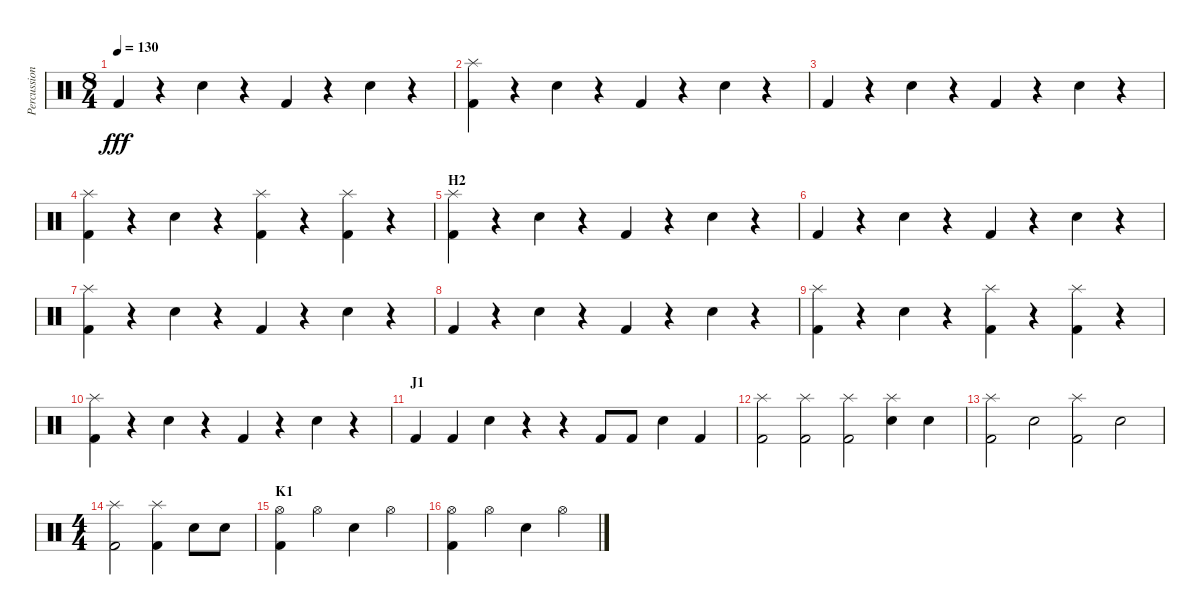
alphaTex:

\track ("Percussion" "Percussion") {instrument percussion}
\staff {score}
\articulation defaults
\ts (8 4)
\tempo 130
\clef neutral
\ks c "Kick (hit) 2".4{dy fff}
r.4 "Electric Snare (hit)".4 r.4 "Kick (hit) 2".4 r.4 "Electric Snare (hit)".4 r.4 |
("Kick (hit) 2" "Splash (hit)").4 r.4 "Electric Snare (hit)".4 r.4 "Kick (hit) 2".4 r.4 "Electric Snare (hit)".4 r.4 |
"Kick (hit) 2".4 r.4 "Electric Snare (hit)".4 r.4 "Kick (hit) 2".4 r.4 "Electric Snare (hit)".4 r.4 |
("Kick (hit) 2" "Splash (hit)").4 r.4 "Electric Snare (hit)".4 r.4 ("Kick (hit) 2" "Splash (hit)").4 r.4 ("Kick (hit) 2" "Splash (hit)").4 r.4 |
\section ("" "H2")
("Kick (hit) 2" "Splash (hit)").4 r.4 "Electric Snare (hit)".4 r.4 "Kick (hit) 2".4 r.4 "Electric Snare (hit)".4 r.4 |
"Kick (hit) 2".4 r.4 "Electric Snare (hit)".4 r.4 "Kick (hit) 2".4 r.4 "Electric Snare (hit)".4 r.4 |
("Kick (hit) 2" "Splash (hit)").4 r.4 "Electric Snare (hit)".4 r.4 "Kick (hit) 2".4 r.4 "Electric Snare (hit)".4 r.4 |
"Kick (hit) 2".4 r.4 "Electric Snare (hit)".4 r.4 "Kick (hit) 2".4 r.4 "Electric Snare (hit)".4 r.4 |
("Kick (hit) 2" "Splash (hit)").4 r.4 "Electric Snare (hit)".4 r.4 ("Kick (hit) 2" "Splash (hit)").4 r.4 ("Kick (hit) 2" "Splash (hit)").4 r.4 |
("Kick (hit) 2" "Splash (hit)").4 r.4 "Electric Snare (hit)".4 r.4 "Kick (hit) 2".4 r.4 "Electric Snare (hit)".4 r.4 |
\section ("" "J1")
"Kick (hit) 2".4 "Kick (hit) 2".4 "Electric Snare (hit)".4 r.4 r.4 "Kick (hit) 2".8 "Kick (hit) 2".8 "Electric Snare (hit)".4 "Kick (hit) 2".4 |
("Kick (hit) 2" "Splash (hit)").2 ("Kick (hit) 2" "Splash (hit)").2 ("Kick (hit) 2" "Splash (hit)").2 ("Electric Snare (hit)" "Splash (hit)").4 "Electric Snare (hit)".4 |
("Kick (hit) 2" "Splash (hit)").2 "Electric Snare (hit)".2 ("Kick (hit) 2" "Splash (hit)").2 "Electric Snare (hit)".2 |
\ts (4 4)
("Kick (hit) 2" "Splash (hit)").2 ("Kick (hit) 2" "Splash (hit)").4 "Electric Snare (hit)".8 "Electric Snare (hit)".8 |
\section ("" "K1")
("Kick (hit) 2" "Hi-Hat (open)").4 "Hi-Hat (open)".4 "Electric Snare (hit)".4 "Hi-Hat (open)".4 |
("Kick (hit) 2" "Hi-Hat (open)").4 "Hi-Hat (open)".4 "Electric Snare (hit)".4 "Hi-Hat (open)".4
